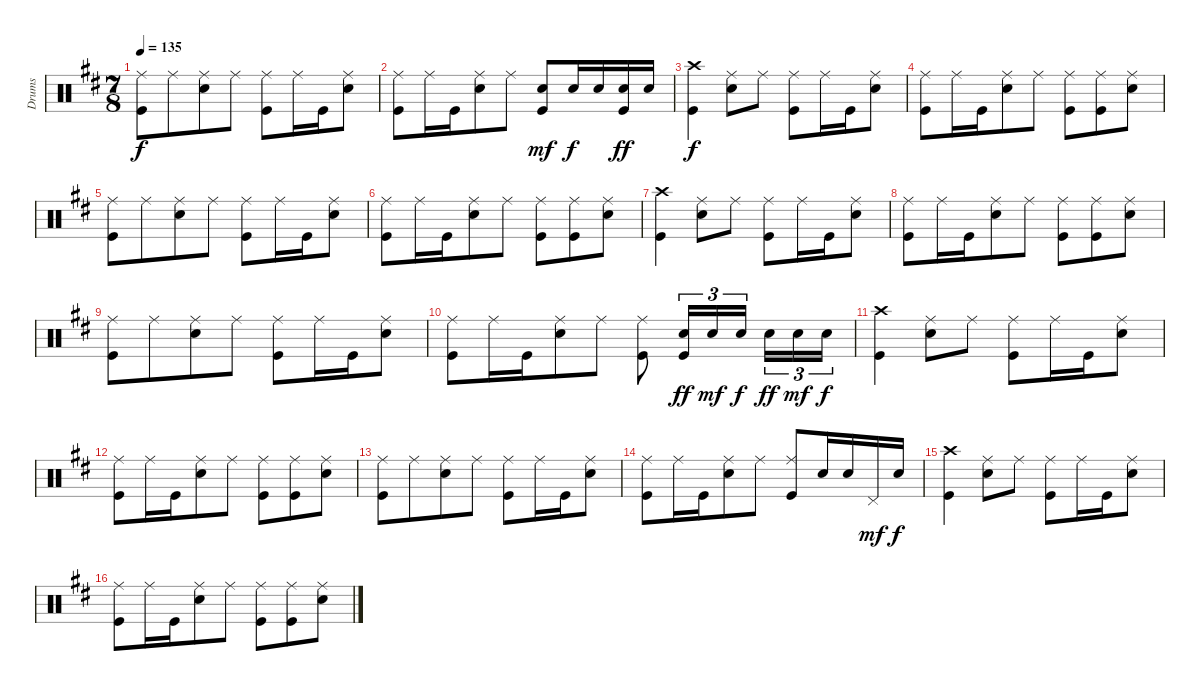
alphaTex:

\track ("Drums" "Drums") {instrument percussion}
\staff {score}
\articulation defaults
\ts (7 8)
\tempo 135
\clef neutral
\ks d
("Ride (middle)" "Kick (hit)").8{dy f} "Ride (middle)".8 ("Ride (middle)" "Snare (hit) 2").8 "Ride (middle)".8 ("Ride (middle)" "Kick (hit)").8 "Ride (middle)".16 "Kick (hit)".16 ("Ride (middle)" "Snare (hit) 2").8 |
("Ride (middle)" "Kick (hit)").8 "Ride (middle)".16 "Kick (hit)".16 ("Ride (middle)" "Snare (hit) 2").8 "Ride (middle)".8 ("Snare (hit) 2" "Kick (hit)").8{dy mf} "Snare (hit) 2".16{dy f} "Snare (hit) 2".16 ("Snare (hit) 2" "Kick (hit)").16{dy ff} "Snare (hit) 2".16 |
("Crash high (hit)" "Kick (hit)").4{dy f} ("Ride (middle)" "Snare (hit) 2").8 "Ride (middle)".8 ("Ride (middle)" "Kick (hit)").8 "Ride (middle)".16 "Kick (hit)".16 ("Ride (middle)" "Snare (hit) 2").8 |
("Ride (middle)" "Kick (hit)").8 "Ride (middle)".16 "Kick (hit)".16 ("Ride (middle)" "Snare (hit) 2").8 "Ride (middle)".8 ("Ride (middle)" "Kick (hit)").8 ("Ride (middle)" "Kick (hit)").8 ("Ride (middle)" "Snare (hit) 2").8 |
("Ride (middle)" "Kick (hit)").8 "Ride (middle)".8 ("Ride (middle)" "Snare (hit) 2").8 "Ride (middle)".8 ("Ride (middle)" "Kick (hit)").8 "Ride (middle)".16 "Kick (hit)".16 ("Ride (middle)" "Snare (hit) 2").8 |
("Ride (middle)" "Kick (hit)").8 "Ride (middle)".16 "Kick (hit)".16 ("Ride (middle)" "Snare (hit) 2").8 "Ride (middle)".8 ("Ride (middle)" "Kick (hit)").8 ("Ride (middle)" "Kick (hit)").8 ("Ride (middle)" "Snare (hit) 2").8 |
("Crash high (hit)" "Kick (hit)").4 ("Ride (middle)" "Snare (hit) 2").8 "Ride (middle)".8 ("Ride (middle)" "Kick (hit)").8 "Ride (middle)".16 "Kick (hit)".16 ("Ride (middle)" "Snare (hit) 2").8 |
("Ride (middle)" "Kick (hit)").8 "Ride (middle)".16 "Kick (hit)".16 ("Ride (middle)" "Snare (hit) 2").8 "Ride (middle)".8 ("Ride (middle)" "Kick (hit)").8 ("Ride (middle)" "Kick (hit)").8 ("Ride (middle)" "Snare (hit) 2").8 |
("Ride (middle)" "Kick (hit)").8 "Ride (middle)".8 ("Ride (middle)" "Snare (hit) 2").8 "Ride (middle)".8 ("Ride (middle)" "Kick (hit)").8 "Ride (middle)".16 "Kick (hit)".16 ("Ride (middle)" "Snare (hit) 2").8 |
("Ride (middle)" "Kick (hit)").8 "Ride (middle)".16 "Kick (hit)".16 ("Ride (middle)" "Snare (hit) 2").8 "Ride (middle)".8 ("Ride (middle)" "Kick (hit)").8 ("Snare (hit) 2" "Kick (hit)").16{tu (3 2) dy ff} "Snare (hit) 2".16{tu (3 2) dy mf} "Snare (hit) 2".16{tu (3 2) dy f} "Snare (hit) 2".16{tu (3 2) dy ff} "Snare (hit) 2".16{tu (3 2) dy mf} "Snare (hit) 2".16{tu (3 2) dy f} |
("Crash high (hit)" "Kick (hit)").4 ("Ride (middle)" "Snare (hit) 2").8 "Ride (middle)".8 ("Ride (middle)" "Kick (hit)").8 "Ride (middle)".16 "Kick (hit)".16 ("Ride (middle)" "Snare (hit) 2").8 |
("Ride (middle)" "Kick (hit)").8 "Ride (middle)".16 "Kick (hit)".16 ("Ride (middle)" "Snare (hit) 2").8 "Ride (middle)".8 ("Ride (middle)" "Kick (hit)").8 ("Ride (middle)" "Kick (hit)").8 ("Ride (middle)" "Snare (hit) 2").8 |
("Ride (middle)" "Kick (hit)").8 "Ride (middle)".8 ("Ride (middle)" "Snare (hit) 2").8 "Ride (middle)".8 ("Ride (middle)" "Kick (hit)").8 "Ride (middle)".16 "Kick (hit)".16 ("Ride (middle)" "Snare (hit) 2").8 |
("Ride (middle)" "Kick (hit)").8 "Ride (middle)".16 "Kick (hit)".16 ("Ride (middle)" "Snare (hit) 2").8 "Ride (middle)".8 ("Ride (middle)" "Kick (hit)").8 "Snare (hit) 2".16 "Snare (hit) 2".16 "Pedal Hi-Hat (hit)".16{dy mf} "Snare (hit) 2".16{dy f} |
("Crash high (hit)" "Kick (hit)").4 ("Ride (middle)" "Snare (hit) 2").8 "Ride (middle)".8 ("Ride (middle)" "Kick (hit)").8 "Ride (middle)".16 "Kick (hit)".16 ("Ride (middle)" "Snare (hit) 2").8 |
("Ride (middle)" "Kick (hit)").8 "Ride (middle)".16 "Kick (hit)".16 ("Ride (middle)" "Snare (hit) 2").8 "Ride (middle)".8 ("Ride (middle)" "Kick (hit)").8 ("Ride (middle)" "Kick (hit)").8 ("Ride (middle)" "Snare (hit) 2").8
